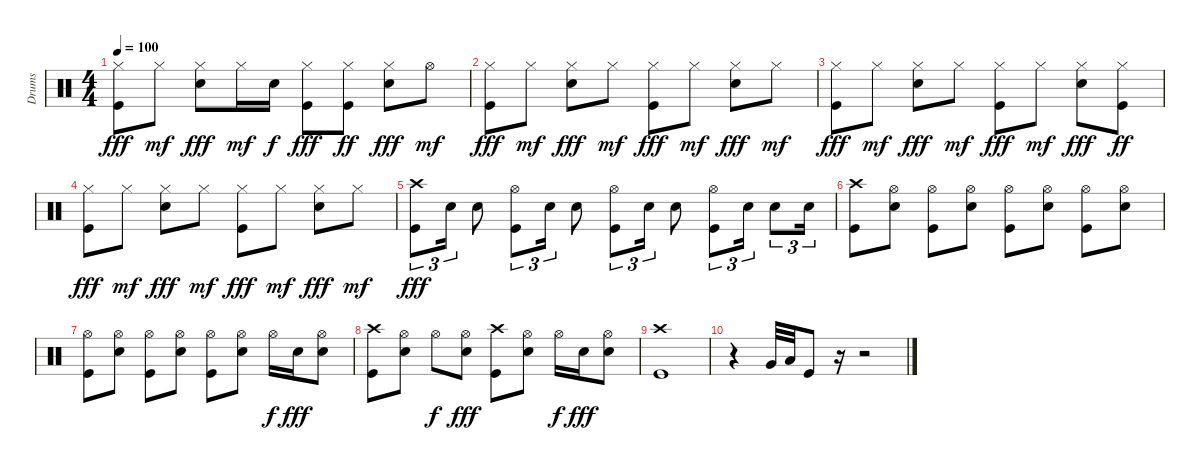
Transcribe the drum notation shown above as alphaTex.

\track ("Drums" "Drums") {instrument percussion}
\staff {score}
\articulation defaults
\ts (4 4)
\tempo 100
\clef neutral
\ks c
("Hi-Hat (closed)" "Kick (hit)").8{dy fff} "Hi-Hat (closed)".8{dy mf} ("Hi-Hat (closed)" "Snare (hit) 2").8{dy fff} "Hi-Hat (closed)".16{dy mf} "Snare (hit) 2".16{dy f} ("Hi-Hat (closed)" "Kick (hit)").8{dy fff} ("Hi-Hat (closed)" "Kick (hit)").8{dy ff} ("Hi-Hat (closed)" "Snare (hit) 2").8{dy fff} "Hi-Hat (open)".8{dy mf} |
("Hi-Hat (closed)" "Kick (hit)").8{dy fff} "Hi-Hat (closed)".8{dy mf} ("Hi-Hat (closed)" "Snare (hit) 2").8{dy fff} "Hi-Hat (closed)".8{dy mf} ("Hi-Hat (closed)" "Kick (hit)").8{dy fff} "Hi-Hat (closed)".8{dy mf} ("Hi-Hat (closed)" "Snare (hit) 2").8{dy fff} "Hi-Hat (closed)".8{dy mf} |
("Hi-Hat (closed)" "Kick (hit)").8{dy fff} "Hi-Hat (closed)".8{dy mf} ("Hi-Hat (closed)" "Snare (hit) 2").8{dy fff} "Hi-Hat (closed)".8{dy mf} ("Hi-Hat (closed)" "Kick (hit)").8{dy fff} "Hi-Hat (closed)".8{dy mf} ("Hi-Hat (closed)" "Snare (hit) 2").8{dy fff} ("Hi-Hat (closed)" "Kick (hit)").8{dy ff} |
("Hi-Hat (closed)" "Kick (hit)").8{dy fff} "Hi-Hat (closed)".8{dy mf} ("Hi-Hat (closed)" "Snare (hit) 2").8{dy fff} "Hi-Hat (closed)".8{dy mf} ("Hi-Hat (closed)" "Kick (hit)").8{dy fff} "Hi-Hat (closed)".8{dy mf} ("Hi-Hat (closed)" "Snare (hit) 2").8{dy fff} "Hi-Hat (closed)".8{dy mf} |
("Crash high (hit)" "Kick (hit)").8{tu (3 2) dy fff} "Snare (hit) 2".16{tu (3 2)} "Snare (hit) 2".8 ("Hi-Hat (open)" "Kick (hit)").8{tu (3 2)} "Snare (hit) 2".16{tu (3 2)} "Snare (hit) 2".8 ("Hi-Hat (open)" "Kick (hit)").8{tu (3 2)} "Snare (hit) 2".16{tu (3 2)} "Snare (hit) 2".8 ("Hi-Hat (open)" "Kick (hit)").8{tu (3 2)} "Snare (hit) 2".16{tu (3 2)} "Snare (hit) 2".8{tu (3 2)} "Snare (hit) 2".16{tu (3 2)} |
("Crash high (hit)" "Kick (hit)").8 ("Hi-Hat (open)" "Snare (hit) 2").8 ("Hi-Hat (open)" "Kick (hit)").8 ("Hi-Hat (open)" "Snare (hit) 2").8 ("Hi-Hat (open)" "Kick (hit)").8 ("Hi-Hat (open)" "Snare (hit) 2").8 ("Hi-Hat (open)" "Kick (hit)").8 ("Hi-Hat (open)" "Snare (hit) 2").8 |
("Hi-Hat (open)" "Kick (hit)").8 ("Hi-Hat (open)" "Snare (hit) 2").8 ("Hi-Hat (open)" "Kick (hit)").8 ("Hi-Hat (open)" "Snare (hit) 2").8 ("Hi-Hat (open)" "Kick (hit)").8 ("Hi-Hat (open)" "Snare (hit) 2").8 "Hi-Hat (open)".16{dy f} "Snare (hit) 2".16{dy fff} ("Hi-Hat (open)" "Snare (hit) 2").8 |
("Crash high (hit)" "Kick (hit)").8 ("Hi-Hat (open)" "Snare (hit) 2").8 "Hi-Hat (open)".8{dy f} ("Hi-Hat (open)" "Snare (hit) 2").8{dy fff} ("Crash high (hit)" "Kick (hit)").8 ("Hi-Hat (open)" "Snare (hit) 2").8 "Hi-Hat (open)".16{dy f} "Snare (hit) 2".16{dy fff} ("Hi-Hat (open)" "Snare (hit) 2").8 |
("Crash high (hit)" "Kick (hit)").1 |
r.4 "Very Low Tom (hit)".32 "Low Floor Tom (hit)".32 "Kick (hit)".8 r.16 r.2
